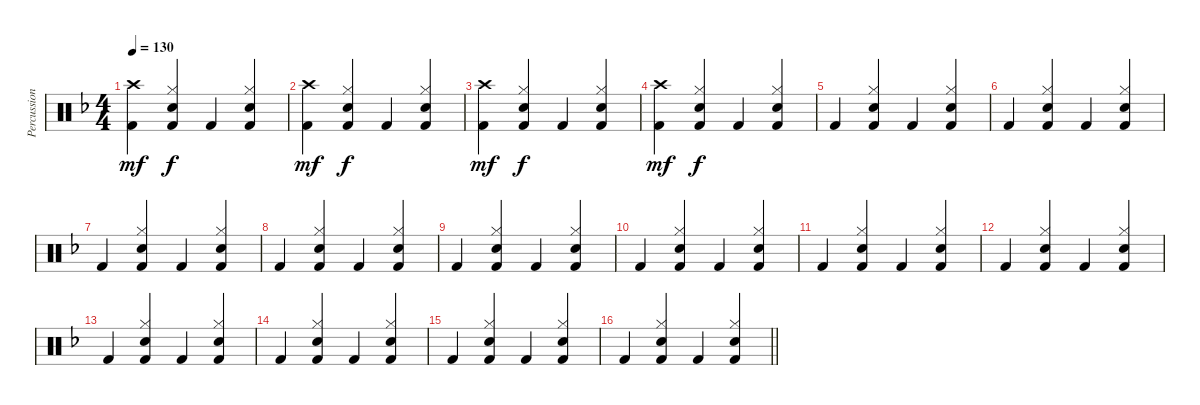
\track ("Percussion" "Percussion") {instrument percussion}
\staff {score}
\articulation defaults
\ts (4 4)
\tempo 130
\clef neutral
\ks f
("Crash high (hit)" "Kick (hit) 2").4{dy mf} ("Hi-Hat (closed)" "Snare (hit) 2" "Kick (hit) 2").4{dy f} "Kick (hit) 2".4 ("Hi-Hat (closed)" "Snare (hit) 2" "Kick (hit) 2").4 |
("Crash high (hit)" "Kick (hit) 2").4{dy mf} ("Hi-Hat (closed)" "Snare (hit) 2" "Kick (hit) 2").4{dy f} "Kick (hit) 2".4 ("Hi-Hat (closed)" "Snare (hit) 2" "Kick (hit) 2").4 |
("Crash high (hit)" "Kick (hit) 2").4{dy mf} ("Hi-Hat (closed)" "Snare (hit) 2" "Kick (hit) 2").4{dy f} "Kick (hit) 2".4 ("Hi-Hat (closed)" "Snare (hit) 2" "Kick (hit) 2").4 |
("Crash high (hit)" "Kick (hit) 2").4{dy mf} ("Hi-Hat (closed)" "Snare (hit) 2" "Kick (hit) 2").4{dy f} "Kick (hit) 2".4 ("Hi-Hat (closed)" "Snare (hit) 2" "Kick (hit) 2").4 |
"Kick (hit) 2".4 ("Hi-Hat (closed)" "Snare (hit) 2" "Kick (hit) 2").4 "Kick (hit) 2".4 ("Hi-Hat (closed)" "Snare (hit) 2" "Kick (hit) 2").4 |
"Kick (hit) 2".4 ("Hi-Hat (closed)" "Snare (hit) 2" "Kick (hit) 2").4 "Kick (hit) 2".4 ("Hi-Hat (closed)" "Snare (hit) 2" "Kick (hit) 2").4 |
"Kick (hit) 2".4 ("Hi-Hat (closed)" "Snare (hit) 2" "Kick (hit) 2").4 "Kick (hit) 2".4 ("Hi-Hat (closed)" "Snare (hit) 2" "Kick (hit) 2").4 |
"Kick (hit) 2".4 ("Hi-Hat (closed)" "Snare (hit) 2" "Kick (hit) 2").4 "Kick (hit) 2".4 ("Hi-Hat (closed)" "Snare (hit) 2" "Kick (hit) 2").4 |
"Kick (hit) 2".4 ("Hi-Hat (closed)" "Snare (hit) 2" "Kick (hit) 2").4 "Kick (hit) 2".4 ("Hi-Hat (closed)" "Snare (hit) 2" "Kick (hit) 2").4 |
"Kick (hit) 2".4 ("Hi-Hat (closed)" "Snare (hit) 2" "Kick (hit) 2").4 "Kick (hit) 2".4 ("Hi-Hat (closed)" "Snare (hit) 2" "Kick (hit) 2").4 |
"Kick (hit) 2".4 ("Hi-Hat (closed)" "Snare (hit) 2" "Kick (hit) 2").4 "Kick (hit) 2".4 ("Hi-Hat (closed)" "Snare (hit) 2" "Kick (hit) 2").4 |
"Kick (hit) 2".4 ("Hi-Hat (closed)" "Snare (hit) 2" "Kick (hit) 2").4 "Kick (hit) 2".4 ("Hi-Hat (closed)" "Snare (hit) 2" "Kick (hit) 2").4 |
"Kick (hit) 2".4 ("Hi-Hat (closed)" "Snare (hit) 2" "Kick (hit) 2").4 "Kick (hit) 2".4 ("Hi-Hat (closed)" "Snare (hit) 2" "Kick (hit) 2").4 |
"Kick (hit) 2".4 ("Hi-Hat (closed)" "Snare (hit) 2" "Kick (hit) 2").4 "Kick (hit) 2".4 ("Hi-Hat (closed)" "Snare (hit) 2" "Kick (hit) 2").4 |
"Kick (hit) 2".4 ("Hi-Hat (closed)" "Snare (hit) 2" "Kick (hit) 2").4 "Kick (hit) 2".4 ("Hi-Hat (closed)" "Snare (hit) 2" "Kick (hit) 2").4 |
\barLineRight lightlight "Kick (hit) 2".4
("Hi-Hat (closed)" "Snare (hit) 2" "Kick (hit) 2").4 "Kick (hit) 2".4 ("Hi-Hat (closed)" "Snare (hit) 2" "Kick (hit) 2").4
